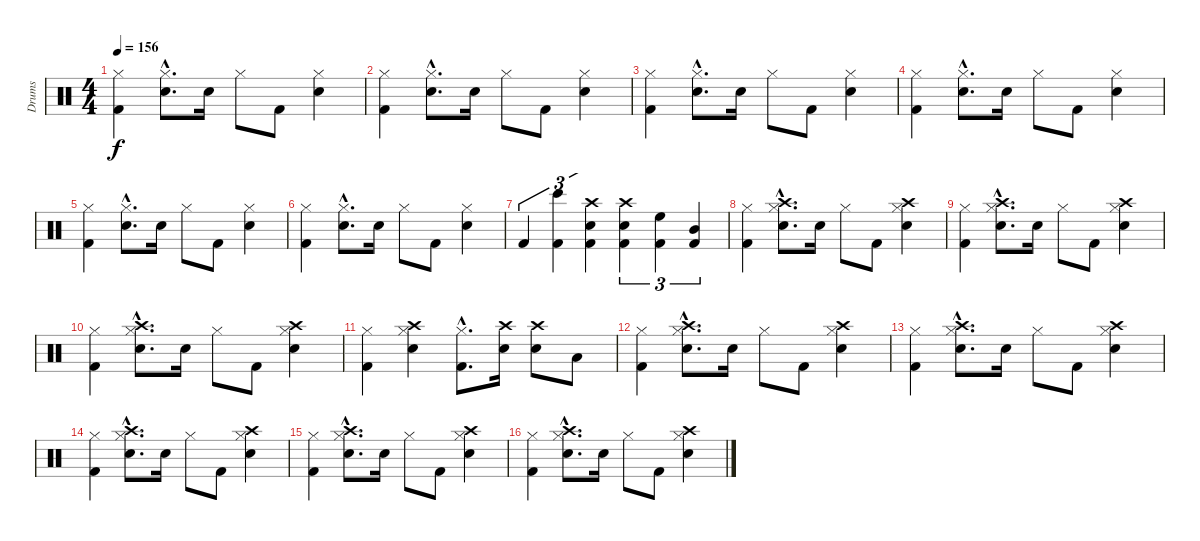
\track ("Drums" "Drums") {instrument percussion}
\staff {score}
\articulation defaults
\ts (4 4)
\tempo 156
\clef neutral
\ks c
("Hi-Hat (closed)" "Kick (hit) 2").4{dy f} ("Hi-Hat (closed)"{hac} "Snare (hit) 2"{hac}).8{d} "Snare (hit) 2".16 "Hi-Hat (closed)".8 "Kick (hit) 2".8 ("Hi-Hat (closed)" "Snare (hit) 2").4 |
("Hi-Hat (closed)" "Kick (hit) 2").4 ("Hi-Hat (closed)"{hac} "Snare (hit) 2"{hac}).8{d} "Snare (hit) 2".16 "Hi-Hat (closed)".8 "Kick (hit) 2".8 ("Hi-Hat (closed)" "Snare (hit) 2").4 |
("Hi-Hat (closed)" "Kick (hit) 2").4 ("Hi-Hat (closed)"{hac} "Snare (hit) 2"{hac}).8{d} "Snare (hit) 2".16 "Hi-Hat (closed)".8 "Kick (hit) 2".8 ("Hi-Hat (closed)" "Snare (hit) 2").4 |
("Hi-Hat (closed)" "Kick (hit) 2").4 ("Hi-Hat (closed)"{hac} "Snare (hit) 2"{hac}).8{d} "Snare (hit) 2".16 "Hi-Hat (closed)".8 "Kick (hit) 2".8 ("Hi-Hat (closed)" "Snare (hit) 2").4 |
("Hi-Hat (closed)" "Kick (hit) 2").4 ("Hi-Hat (closed)"{hac} "Snare (hit) 2"{hac}).8{d} "Snare (hit) 2".16 "Hi-Hat (closed)".8 "Kick (hit) 2".8 ("Hi-Hat (closed)" "Snare (hit) 2").4 |
("Hi-Hat (closed)" "Kick (hit) 2").4 ("Hi-Hat (closed)"{hac} "Snare (hit) 2"{hac}).8{d} "Snare (hit) 2".16 "Hi-Hat (closed)".8 "Kick (hit) 2".8 ("Hi-Hat (closed)" "Snare (hit) 2").4 |
"Kick (hit) 2".4{tu (3 2)} ("Bongo High (hit)" "Kick (hit) 2").4{tu (3 2)} ("Crash high (hit)" "Snare (hit) 2" "Kick (hit) 2").4{tu (3 2)} ("Crash high (hit)" "Snare (hit) 2" "Kick (hit) 2").4{tu (3 2)} ("High Floor Tom (hit)" "Kick (hit) 2").4{tu (3 2)} ("Mid Tom (hit)" "Kick (hit) 2").4{tu (3 2)} |
("Hi-Hat (closed)" "Kick (hit) 2").4 ("Crash high (hit)"{hac} "Hi-Hat (closed)"{hac} "Snare (hit) 2"{hac}).8{d} "Snare (hit) 2".16 "Hi-Hat (closed)".8 "Kick (hit) 2".8 ("Crash high (hit)" "Hi-Hat (closed)" "Snare (hit) 2").4 |
("Hi-Hat (closed)" "Kick (hit) 2").4 ("Crash high (hit)"{hac} "Hi-Hat (closed)"{hac} "Snare (hit) 2"{hac}).8{d} "Snare (hit) 2".16 "Hi-Hat (closed)".8 "Kick (hit) 2".8 ("Crash high (hit)" "Hi-Hat (closed)" "Snare (hit) 2").4 |
("Hi-Hat (closed)" "Kick (hit) 2").4 ("Crash high (hit)"{hac} "Hi-Hat (closed)"{hac} "Snare (hit) 2"{hac}).8{d} "Snare (hit) 2".16 "Hi-Hat (closed)".8 "Kick (hit) 2".8 ("Crash high (hit)" "Hi-Hat (closed)" "Snare (hit) 2").4 |
("Hi-Hat (closed)" "Kick (hit) 2").4 ("Crash high (hit)" "Hi-Hat (closed)" "Snare (hit) 2").4 ("Hi-Hat (closed)"{hac} "Kick (hit) 2"{hac}).8{d} ("Crash high (hit)" "Snare (hit) 2").16 ("Crash high (hit)" "Snare (hit) 2").8 "Low Tom (hit)".8 |
("Hi-Hat (closed)" "Kick (hit) 2").4 ("Crash high (hit)"{hac} "Hi-Hat (closed)"{hac} "Snare (hit) 2"{hac}).8{d} "Snare (hit) 2".16 "Hi-Hat (closed)".8 "Kick (hit) 2".8 ("Crash high (hit)" "Hi-Hat (closed)" "Snare (hit) 2").4 |
("Hi-Hat (closed)" "Kick (hit) 2").4 ("Crash high (hit)"{hac} "Hi-Hat (closed)"{hac} "Snare (hit) 2"{hac}).8{d} "Snare (hit) 2".16 "Hi-Hat (closed)".8 "Kick (hit) 2".8 ("Crash high (hit)" "Hi-Hat (closed)" "Snare (hit) 2").4 |
("Hi-Hat (closed)" "Kick (hit) 2").4 ("Crash high (hit)"{hac} "Hi-Hat (closed)"{hac} "Snare (hit) 2"{hac}).8{d} "Snare (hit) 2".16 "Hi-Hat (closed)".8 "Kick (hit) 2".8 ("Crash high (hit)" "Hi-Hat (closed)" "Snare (hit) 2").4 |
("Hi-Hat (closed)" "Kick (hit) 2").4 ("Crash high (hit)"{hac} "Hi-Hat (closed)"{hac} "Snare (hit) 2"{hac}).8{d} "Snare (hit) 2".16 "Hi-Hat (closed)".8 "Kick (hit) 2".8 ("Crash high (hit)" "Hi-Hat (closed)" "Snare (hit) 2").4 |
("Hi-Hat (closed)" "Kick (hit) 2").4 ("Crash high (hit)"{hac} "Hi-Hat (closed)"{hac} "Snare (hit) 2"{hac}).8{d} "Snare (hit) 2".16 "Hi-Hat (closed)".8 "Kick (hit) 2".8 ("Crash high (hit)" "Hi-Hat (closed)" "Snare (hit) 2").4
